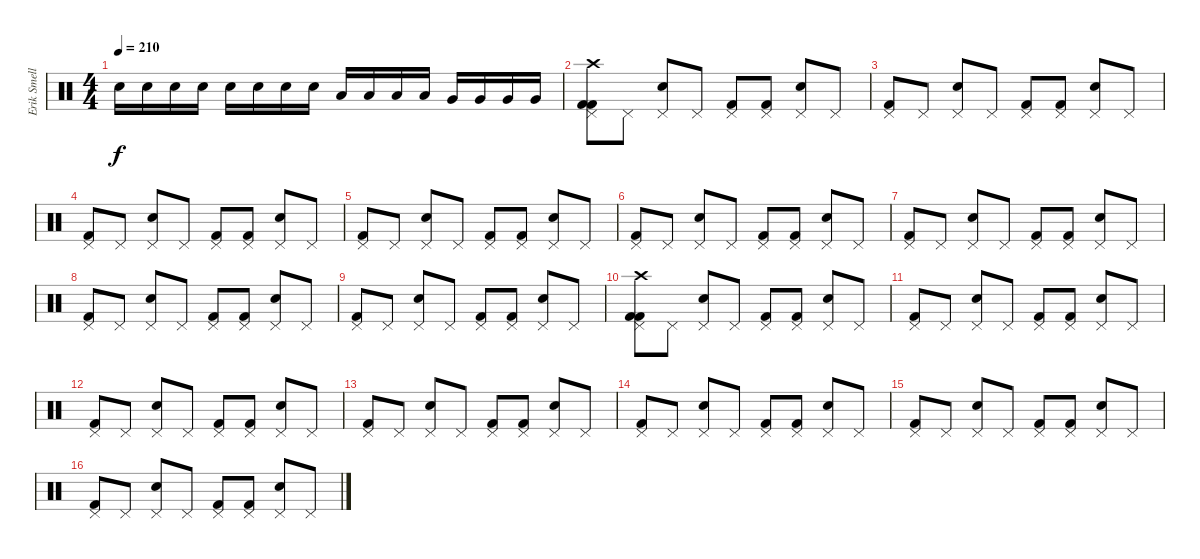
\track ("Erik Smelly" "Erik Smell") {instrument percussion}
\staff {score}
\articulation defaults
\ts (4 4)
\tempo 210
\clef neutral
\ks c "Electric Snare (hit)".16{dy f} "Electric Snare (hit)".16 "Electric Snare (hit)".16 "Electric Snare (hit)".16 "Electric Snare (hit)".16 "Electric Snare (hit)".16 "Electric Snare (hit)".16 "Electric Snare (hit)".16 "Low Tom (hit)".16 "Low Tom (hit)".16 "Low Tom (hit)".16 "Low Tom (hit)".16 "Very Low Tom (hit)".16 "Very Low Tom (hit)".16 "Very Low Tom (hit)".16 "Very Low Tom (hit)".16
|
("Pedal Hi-Hat (hit)" "Kick (hit) 2" "Crash high (hit)" "Kick (hit) 2").8 "Pedal Hi-Hat (hit)".8 ("Pedal Hi-Hat (hit)" "Electric Snare (hit)").8 "Pedal Hi-Hat (hit)".8 ("Pedal Hi-Hat (hit)" "Kick (hit) 2").8 ("Pedal Hi-Hat (hit)" "Kick (hit) 2").8 ("Pedal Hi-Hat (hit)" "Electric Snare (hit)").8 "Pedal Hi-Hat (hit)".8 |
("Pedal Hi-Hat (hit)" "Kick (hit) 2").8 "Pedal Hi-Hat (hit)".8 ("Pedal Hi-Hat (hit)" "Electric Snare (hit)").8 "Pedal Hi-Hat (hit)".8 ("Pedal Hi-Hat (hit)" "Kick (hit) 2").8 ("Pedal Hi-Hat (hit)" "Kick (hit) 2").8 ("Pedal Hi-Hat (hit)" "Electric Snare (hit)").8 "Pedal Hi-Hat (hit)".8 |
("Pedal Hi-Hat (hit)" "Kick (hit) 2").8 "Pedal Hi-Hat (hit)".8 ("Pedal Hi-Hat (hit)" "Electric Snare (hit)").8 "Pedal Hi-Hat (hit)".8 ("Pedal Hi-Hat (hit)" "Kick (hit) 2").8 ("Pedal Hi-Hat (hit)" "Kick (hit) 2").8 ("Pedal Hi-Hat (hit)" "Electric Snare (hit)").8 "Pedal Hi-Hat (hit)".8 |
("Pedal Hi-Hat (hit)" "Kick (hit) 2").8 "Pedal Hi-Hat (hit)".8 ("Pedal Hi-Hat (hit)" "Electric Snare (hit)").8 "Pedal Hi-Hat (hit)".8 ("Pedal Hi-Hat (hit)" "Kick (hit) 2").8 ("Pedal Hi-Hat (hit)" "Kick (hit) 2").8 ("Pedal Hi-Hat (hit)" "Electric Snare (hit)").8 "Pedal Hi-Hat (hit)".8 |
("Pedal Hi-Hat (hit)" "Kick (hit) 2").8 "Pedal Hi-Hat (hit)".8 ("Pedal Hi-Hat (hit)" "Electric Snare (hit)").8 "Pedal Hi-Hat (hit)".8 ("Pedal Hi-Hat (hit)" "Kick (hit) 2").8 ("Pedal Hi-Hat (hit)" "Kick (hit) 2").8 ("Pedal Hi-Hat (hit)" "Electric Snare (hit)").8 "Pedal Hi-Hat (hit)".8 |
("Pedal Hi-Hat (hit)" "Kick (hit) 2").8 "Pedal Hi-Hat (hit)".8 ("Pedal Hi-Hat (hit)" "Electric Snare (hit)").8 "Pedal Hi-Hat (hit)".8 ("Pedal Hi-Hat (hit)" "Kick (hit) 2").8 ("Pedal Hi-Hat (hit)" "Kick (hit) 2").8 ("Pedal Hi-Hat (hit)" "Electric Snare (hit)").8 "Pedal Hi-Hat (hit)".8 |
("Pedal Hi-Hat (hit)" "Kick (hit) 2").8 "Pedal Hi-Hat (hit)".8 ("Pedal Hi-Hat (hit)" "Electric Snare (hit)").8 "Pedal Hi-Hat (hit)".8 ("Pedal Hi-Hat (hit)" "Kick (hit) 2").8 ("Pedal Hi-Hat (hit)" "Kick (hit) 2").8 ("Pedal Hi-Hat (hit)" "Electric Snare (hit)").8 "Pedal Hi-Hat (hit)".8 |
("Pedal Hi-Hat (hit)" "Kick (hit) 2").8 "Pedal Hi-Hat (hit)".8 ("Pedal Hi-Hat (hit)" "Electric Snare (hit)").8 "Pedal Hi-Hat (hit)".8 ("Pedal Hi-Hat (hit)" "Kick (hit) 2").8 ("Pedal Hi-Hat (hit)" "Kick (hit) 2").8 ("Pedal Hi-Hat (hit)" "Electric Snare (hit)").8 "Pedal Hi-Hat (hit)".8 |
("Pedal Hi-Hat (hit)" "Kick (hit) 2" "Crash high (hit)" "Kick (hit) 2").8 "Pedal Hi-Hat (hit)".8 ("Pedal Hi-Hat (hit)" "Electric Snare (hit)").8 "Pedal Hi-Hat (hit)".8 ("Pedal Hi-Hat (hit)" "Kick (hit) 2").8 ("Pedal Hi-Hat (hit)" "Kick (hit) 2").8 ("Pedal Hi-Hat (hit)" "Electric Snare (hit)").8 "Pedal Hi-Hat (hit)".8 |
("Pedal Hi-Hat (hit)" "Kick (hit) 2").8 "Pedal Hi-Hat (hit)".8 ("Pedal Hi-Hat (hit)" "Electric Snare (hit)").8 "Pedal Hi-Hat (hit)".8 ("Pedal Hi-Hat (hit)" "Kick (hit) 2").8 ("Pedal Hi-Hat (hit)" "Kick (hit) 2").8 ("Pedal Hi-Hat (hit)" "Electric Snare (hit)").8 "Pedal Hi-Hat (hit)".8 |
("Pedal Hi-Hat (hit)" "Kick (hit) 2").8 "Pedal Hi-Hat (hit)".8 ("Pedal Hi-Hat (hit)" "Electric Snare (hit)").8 "Pedal Hi-Hat (hit)".8 ("Pedal Hi-Hat (hit)" "Kick (hit) 2").8 ("Pedal Hi-Hat (hit)" "Kick (hit) 2").8 ("Pedal Hi-Hat (hit)" "Electric Snare (hit)").8 "Pedal Hi-Hat (hit)".8 |
("Pedal Hi-Hat (hit)" "Kick (hit) 2").8 "Pedal Hi-Hat (hit)".8 ("Pedal Hi-Hat (hit)" "Electric Snare (hit)").8 "Pedal Hi-Hat (hit)".8 ("Pedal Hi-Hat (hit)" "Kick (hit) 2").8 ("Pedal Hi-Hat (hit)" "Kick (hit) 2").8 ("Pedal Hi-Hat (hit)" "Electric Snare (hit)").8 "Pedal Hi-Hat (hit)".8 |
("Pedal Hi-Hat (hit)" "Kick (hit) 2").8 "Pedal Hi-Hat (hit)".8 ("Pedal Hi-Hat (hit)" "Electric Snare (hit)").8 "Pedal Hi-Hat (hit)".8 ("Pedal Hi-Hat (hit)" "Kick (hit) 2").8 ("Pedal Hi-Hat (hit)" "Kick (hit) 2").8 ("Pedal Hi-Hat (hit)" "Electric Snare (hit)").8 "Pedal Hi-Hat (hit)".8 |
("Pedal Hi-Hat (hit)" "Kick (hit) 2").8 "Pedal Hi-Hat (hit)".8 ("Pedal Hi-Hat (hit)" "Electric Snare (hit)").8 "Pedal Hi-Hat (hit)".8 ("Pedal Hi-Hat (hit)" "Kick (hit) 2").8 ("Pedal Hi-Hat (hit)" "Kick (hit) 2").8 ("Pedal Hi-Hat (hit)" "Electric Snare (hit)").8 "Pedal Hi-Hat (hit)".8 |
("Pedal Hi-Hat (hit)" "Kick (hit) 2").8 "Pedal Hi-Hat (hit)".8 ("Pedal Hi-Hat (hit)" "Electric Snare (hit)").8 "Pedal Hi-Hat (hit)".8 ("Pedal Hi-Hat (hit)" "Kick (hit) 2").8 ("Pedal Hi-Hat (hit)" "Kick (hit) 2").8 ("Pedal Hi-Hat (hit)" "Electric Snare (hit)").8 "Pedal Hi-Hat (hit)".8
